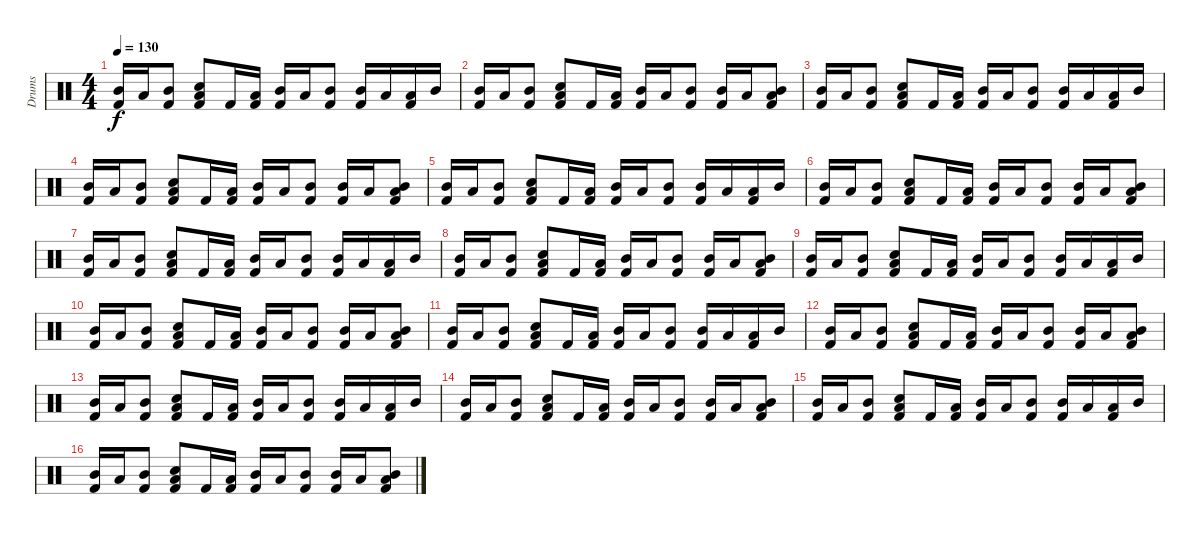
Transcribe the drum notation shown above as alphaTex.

\track ("Drums" "Drums") {instrument percussion}
\staff {score}
\articulation defaults
\ts (4 4)
\tempo 130
\clef neutral
\ks c
("Mid Tom (hit)" "Kick (hit) 2").16{dy f} "Low Tom (hit)".16 ("Mid Tom (hit)" "Kick (hit) 2").8 ("Electric Snare (hit)" "Low Floor Tom (hit)" "Kick (hit) 2").8 "Kick (hit) 2".16 ("Low Floor Tom (hit)" "Kick (hit) 2").16 ("Mid Tom (hit)" "Kick (hit) 2").16 "Low Tom (hit)".16 ("Mid Tom (hit)" "Kick (hit) 2").8 ("Mid Tom (hit)" "Kick (hit) 2").16 "Low Tom (hit)".16 ("Low Floor Tom (hit)" "Kick (hit) 2").16 "Mid Tom (hit)".16 |
("Mid Tom (hit)" "Kick (hit) 2").16 "Low Tom (hit)".16 ("Mid Tom (hit)" "Kick (hit) 2").8 ("Electric Snare (hit)" "Low Floor Tom (hit)" "Kick (hit) 2").8 "Kick (hit) 2".16 ("Low Floor Tom (hit)" "Kick (hit) 2").16 ("Mid Tom (hit)" "Kick (hit) 2").16 "Low Tom (hit)".16 ("Mid Tom (hit)" "Kick (hit) 2").8 ("Mid Tom (hit)" "Kick (hit) 2").16 "Low Tom (hit)".16 ("Mid Tom (hit)" "Low Floor Tom (hit)" "Kick (hit) 2").8 |
("Mid Tom (hit)" "Kick (hit) 2").16 "Low Tom (hit)".16 ("Mid Tom (hit)" "Kick (hit) 2").8 ("Electric Snare (hit)" "Low Floor Tom (hit)" "Kick (hit) 2").8 "Kick (hit) 2".16 ("Low Floor Tom (hit)" "Kick (hit) 2").16 ("Mid Tom (hit)" "Kick (hit) 2").16 "Low Tom (hit)".16 ("Mid Tom (hit)" "Kick (hit) 2").8 ("Mid Tom (hit)" "Kick (hit) 2").16 "Low Tom (hit)".16 ("Low Floor Tom (hit)" "Kick (hit) 2").16 "Mid Tom (hit)".16 |
("Mid Tom (hit)" "Kick (hit) 2").16 "Low Tom (hit)".16 ("Mid Tom (hit)" "Kick (hit) 2").8 ("Electric Snare (hit)" "Low Floor Tom (hit)" "Kick (hit) 2").8 "Kick (hit) 2".16 ("Low Floor Tom (hit)" "Kick (hit) 2").16 ("Mid Tom (hit)" "Kick (hit) 2").16 "Low Tom (hit)".16 ("Mid Tom (hit)" "Kick (hit) 2").8 ("Mid Tom (hit)" "Kick (hit) 2").16 "Low Tom (hit)".16 ("Mid Tom (hit)" "Low Floor Tom (hit)" "Kick (hit) 2").8 |
("Mid Tom (hit)" "Kick (hit) 2").16 "Low Tom (hit)".16 ("Mid Tom (hit)" "Kick (hit) 2").8 ("Electric Snare (hit)" "Low Floor Tom (hit)" "Kick (hit) 2").8 "Kick (hit) 2".16 ("Low Floor Tom (hit)" "Kick (hit) 2").16 ("Mid Tom (hit)" "Kick (hit) 2").16 "Low Tom (hit)".16 ("Mid Tom (hit)" "Kick (hit) 2").8 ("Mid Tom (hit)" "Kick (hit) 2").16 "Low Tom (hit)".16 ("Low Floor Tom (hit)" "Kick (hit) 2").16 "Mid Tom (hit)".16 |
("Mid Tom (hit)" "Kick (hit) 2").16 "Low Tom (hit)".16 ("Mid Tom (hit)" "Kick (hit) 2").8 ("Electric Snare (hit)" "Low Floor Tom (hit)" "Kick (hit) 2").8 "Kick (hit) 2".16 ("Low Floor Tom (hit)" "Kick (hit) 2").16 ("Mid Tom (hit)" "Kick (hit) 2").16 "Low Tom (hit)".16 ("Mid Tom (hit)" "Kick (hit) 2").8 ("Mid Tom (hit)" "Kick (hit) 2").16 "Low Tom (hit)".16 ("Mid Tom (hit)" "Low Floor Tom (hit)" "Kick (hit) 2").8 |
("Mid Tom (hit)" "Kick (hit) 2").16 "Low Tom (hit)".16 ("Mid Tom (hit)" "Kick (hit) 2").8 ("Electric Snare (hit)" "Low Floor Tom (hit)" "Kick (hit) 2").8 "Kick (hit) 2".16 ("Low Floor Tom (hit)" "Kick (hit) 2").16 ("Mid Tom (hit)" "Kick (hit) 2").16 "Low Tom (hit)".16 ("Mid Tom (hit)" "Kick (hit) 2").8 ("Mid Tom (hit)" "Kick (hit) 2").16 "Low Tom (hit)".16 ("Low Floor Tom (hit)" "Kick (hit) 2").16 "Mid Tom (hit)".16 |
("Mid Tom (hit)" "Kick (hit) 2").16 "Low Tom (hit)".16 ("Mid Tom (hit)" "Kick (hit) 2").8 ("Electric Snare (hit)" "Low Floor Tom (hit)" "Kick (hit) 2").8 "Kick (hit) 2".16 ("Low Floor Tom (hit)" "Kick (hit) 2").16 ("Mid Tom (hit)" "Kick (hit) 2").16 "Low Tom (hit)".16 ("Mid Tom (hit)" "Kick (hit) 2").8 ("Mid Tom (hit)" "Kick (hit) 2").16 "Low Tom (hit)".16 ("Mid Tom (hit)" "Low Floor Tom (hit)" "Kick (hit) 2").8 |
("Mid Tom (hit)" "Kick (hit) 2").16 "Low Tom (hit)".16 ("Mid Tom (hit)" "Kick (hit) 2").8 ("Electric Snare (hit)" "Low Floor Tom (hit)" "Kick (hit) 2").8 "Kick (hit) 2".16 ("Low Floor Tom (hit)" "Kick (hit) 2").16 ("Mid Tom (hit)" "Kick (hit) 2").16 "Low Tom (hit)".16 ("Mid Tom (hit)" "Kick (hit) 2").8 ("Mid Tom (hit)" "Kick (hit) 2").16 "Low Tom (hit)".16 ("Low Floor Tom (hit)" "Kick (hit) 2").16 "Mid Tom (hit)".16 |
("Mid Tom (hit)" "Kick (hit) 2").16 "Low Tom (hit)".16 ("Mid Tom (hit)" "Kick (hit) 2").8 ("Electric Snare (hit)" "Low Floor Tom (hit)" "Kick (hit) 2").8 "Kick (hit) 2".16 ("Low Floor Tom (hit)" "Kick (hit) 2").16 ("Mid Tom (hit)" "Kick (hit) 2").16 "Low Tom (hit)".16 ("Mid Tom (hit)" "Kick (hit) 2").8 ("Mid Tom (hit)" "Kick (hit) 2").16 "Low Tom (hit)".16 ("Mid Tom (hit)" "Low Floor Tom (hit)" "Kick (hit) 2").8 |
("Mid Tom (hit)" "Kick (hit) 2").16 "Low Tom (hit)".16 ("Mid Tom (hit)" "Kick (hit) 2").8 ("Electric Snare (hit)" "Low Floor Tom (hit)" "Kick (hit) 2").8 "Kick (hit) 2".16 ("Low Floor Tom (hit)" "Kick (hit) 2").16 ("Mid Tom (hit)" "Kick (hit) 2").16 "Low Tom (hit)".16 ("Mid Tom (hit)" "Kick (hit) 2").8 ("Mid Tom (hit)" "Kick (hit) 2").16 "Low Tom (hit)".16 ("Low Floor Tom (hit)" "Kick (hit) 2").16 "Mid Tom (hit)".16 |
("Mid Tom (hit)" "Kick (hit) 2").16 "Low Tom (hit)".16 ("Mid Tom (hit)" "Kick (hit) 2").8 ("Electric Snare (hit)" "Low Floor Tom (hit)" "Kick (hit) 2").8 "Kick (hit) 2".16 ("Low Floor Tom (hit)" "Kick (hit) 2").16 ("Mid Tom (hit)" "Kick (hit) 2").16 "Low Tom (hit)".16 ("Mid Tom (hit)" "Kick (hit) 2").8 ("Mid Tom (hit)" "Kick (hit) 2").16 "Low Tom (hit)".16 ("Mid Tom (hit)" "Low Floor Tom (hit)" "Kick (hit) 2").8 |
("Mid Tom (hit)" "Kick (hit) 2").16 "Low Tom (hit)".16 ("Mid Tom (hit)" "Kick (hit) 2").8 ("Electric Snare (hit)" "Low Floor Tom (hit)" "Kick (hit) 2").8 "Kick (hit) 2".16 ("Low Floor Tom (hit)" "Kick (hit) 2").16 ("Mid Tom (hit)" "Kick (hit) 2").16 "Low Tom (hit)".16 ("Mid Tom (hit)" "Kick (hit) 2").8 ("Mid Tom (hit)" "Kick (hit) 2").16 "Low Tom (hit)".16 ("Low Floor Tom (hit)" "Kick (hit) 2").16 "Mid Tom (hit)".16 |
("Mid Tom (hit)" "Kick (hit) 2").16 "Low Tom (hit)".16 ("Mid Tom (hit)" "Kick (hit) 2").8 ("Electric Snare (hit)" "Low Floor Tom (hit)" "Kick (hit) 2").8 "Kick (hit) 2".16 ("Low Floor Tom (hit)" "Kick (hit) 2").16 ("Mid Tom (hit)" "Kick (hit) 2").16 "Low Tom (hit)".16 ("Mid Tom (hit)" "Kick (hit) 2").8 ("Mid Tom (hit)" "Kick (hit) 2").16 "Low Tom (hit)".16 ("Mid Tom (hit)" "Low Floor Tom (hit)" "Kick (hit) 2").8 |
("Mid Tom (hit)" "Kick (hit) 2").16 "Low Tom (hit)".16 ("Mid Tom (hit)" "Kick (hit) 2").8 ("Electric Snare (hit)" "Low Floor Tom (hit)" "Kick (hit) 2").8 "Kick (hit) 2".16 ("Low Floor Tom (hit)" "Kick (hit) 2").16 ("Mid Tom (hit)" "Kick (hit) 2").16 "Low Tom (hit)".16 ("Mid Tom (hit)" "Kick (hit) 2").8 ("Mid Tom (hit)" "Kick (hit) 2").16 "Low Tom (hit)".16 ("Low Floor Tom (hit)" "Kick (hit) 2").16 "Mid Tom (hit)".16 |
("Mid Tom (hit)" "Kick (hit) 2").16 "Low Tom (hit)".16 ("Mid Tom (hit)" "Kick (hit) 2").8 ("Electric Snare (hit)" "Low Floor Tom (hit)" "Kick (hit) 2").8 "Kick (hit) 2".16 ("Low Floor Tom (hit)" "Kick (hit) 2").16 ("Mid Tom (hit)" "Kick (hit) 2").16 "Low Tom (hit)".16 ("Mid Tom (hit)" "Kick (hit) 2").8 ("Mid Tom (hit)" "Kick (hit) 2").16 "Low Tom (hit)".16 ("Mid Tom (hit)" "Low Floor Tom (hit)" "Kick (hit) 2").8
